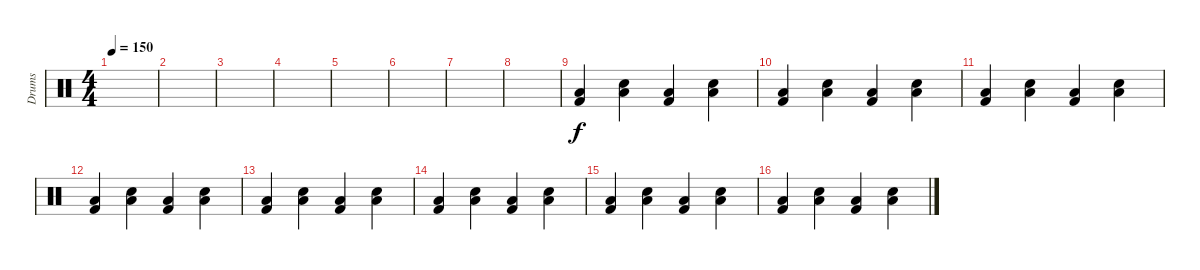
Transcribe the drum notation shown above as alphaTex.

\track ("Drums" "Drums") {instrument percussion}
\staff {score}
\articulation defaults
\ts (4 4)
\tempo 150
\clef neutral
\ks c
|
|
|
|
|
|
|
|
("Low Floor Tom (hit)" "Kick (hit) 2").4 ("Low Floor Tom (hit)" "Electric Snare (hit)").4 ("Low Floor Tom (hit)" "Kick (hit) 2").4 ("Low Floor Tom (hit)" "Electric Snare (hit)").4 |
("Low Floor Tom (hit)" "Kick (hit) 2").4 ("Low Floor Tom (hit)" "Electric Snare (hit)").4 ("Low Floor Tom (hit)" "Kick (hit) 2").4 ("Low Floor Tom (hit)" "Electric Snare (hit)").4 |
("Low Floor Tom (hit)" "Kick (hit) 2").4 ("Low Floor Tom (hit)" "Electric Snare (hit)").4 ("Low Floor Tom (hit)" "Kick (hit) 2").4 ("Low Floor Tom (hit)" "Electric Snare (hit)").4 |
("Low Floor Tom (hit)" "Kick (hit) 2").4 ("Low Floor Tom (hit)" "Electric Snare (hit)").4 ("Low Floor Tom (hit)" "Kick (hit) 2").4 ("Low Floor Tom (hit)" "Electric Snare (hit)").4 |
("Low Floor Tom (hit)" "Kick (hit) 2").4 ("Low Floor Tom (hit)" "Electric Snare (hit)").4 ("Low Floor Tom (hit)" "Kick (hit) 2").4 ("Low Floor Tom (hit)" "Electric Snare (hit)").4 |
("Low Floor Tom (hit)" "Kick (hit) 2").4 ("Low Floor Tom (hit)" "Electric Snare (hit)").4 ("Low Floor Tom (hit)" "Kick (hit) 2").4 ("Low Floor Tom (hit)" "Electric Snare (hit)").4 |
("Low Floor Tom (hit)" "Kick (hit) 2").4 ("Low Floor Tom (hit)" "Electric Snare (hit)").4 ("Low Floor Tom (hit)" "Kick (hit) 2").4 ("Low Floor Tom (hit)" "Electric Snare (hit)").4 |
("Low Floor Tom (hit)" "Kick (hit) 2").4 ("Low Floor Tom (hit)" "Electric Snare (hit)").4 ("Low Floor Tom (hit)" "Kick (hit) 2").4 ("Low Floor Tom (hit)" "Electric Snare (hit)").4
